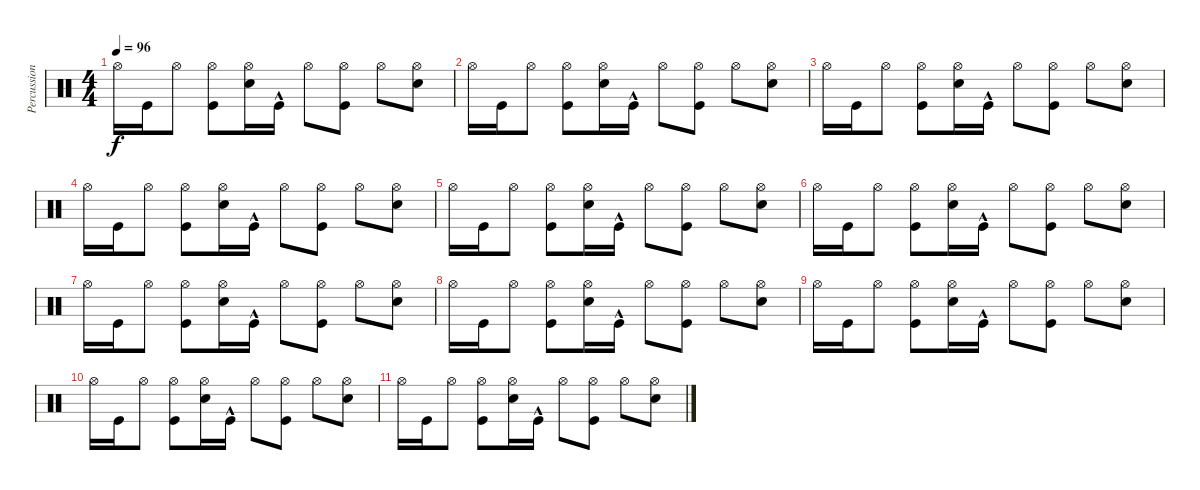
\track ("Percussion" "Percussion") {instrument percussion}
\staff {score}
\articulation defaults
\ts (4 4)
\tempo 96
\clef neutral
\ks c "Hi-Hat (open)".16{dy f} "Kick (hit)".16 "Hi-Hat (open)".8
("Kick (hit)" "Hi-Hat (open)").8 ("Electric Snare (hit)" "Hi-Hat (open)").16 "Kick (hit)"{hac}.16 "Hi-Hat (open)".8 ("Kick (hit)" "Hi-Hat (open)").8 "Hi-Hat (open)".8 ("Electric Snare (hit)" "Hi-Hat (open)").8 |
"Hi-Hat (open)".16 "Kick (hit)".16 "Hi-Hat (open)".8 ("Kick (hit)" "Hi-Hat (open)").8 ("Electric Snare (hit)" "Hi-Hat (open)").16 "Kick (hit)"{hac}.16 "Hi-Hat (open)".8 ("Kick (hit)" "Hi-Hat (open)").8 "Hi-Hat (open)".8 ("Electric Snare (hit)" "Hi-Hat (open)").8 |
"Hi-Hat (open)".16 "Kick (hit)".16 "Hi-Hat (open)".8 ("Kick (hit)" "Hi-Hat (open)").8 ("Electric Snare (hit)" "Hi-Hat (open)").16 "Kick (hit)"{hac}.16 "Hi-Hat (open)".8 ("Kick (hit)" "Hi-Hat (open)").8 "Hi-Hat (open)".8 ("Electric Snare (hit)" "Hi-Hat (open)").8 |
"Hi-Hat (open)".16 "Kick (hit)".16 "Hi-Hat (open)".8 ("Kick (hit)" "Hi-Hat (open)").8 ("Electric Snare (hit)" "Hi-Hat (open)").16 "Kick (hit)"{hac}.16 "Hi-Hat (open)".8 ("Kick (hit)" "Hi-Hat (open)").8 "Hi-Hat (open)".8 ("Electric Snare (hit)" "Hi-Hat (open)").8 |
"Hi-Hat (open)".16 "Kick (hit)".16 "Hi-Hat (open)".8 ("Kick (hit)" "Hi-Hat (open)").8 ("Electric Snare (hit)" "Hi-Hat (open)").16 "Kick (hit)"{hac}.16 "Hi-Hat (open)".8 ("Kick (hit)" "Hi-Hat (open)").8 "Hi-Hat (open)".8 ("Electric Snare (hit)" "Hi-Hat (open)").8 |
"Hi-Hat (open)".16 "Kick (hit)".16 "Hi-Hat (open)".8 ("Kick (hit)" "Hi-Hat (open)").8 ("Electric Snare (hit)" "Hi-Hat (open)").16 "Kick (hit)"{hac}.16 "Hi-Hat (open)".8 ("Kick (hit)" "Hi-Hat (open)").8 "Hi-Hat (open)".8 ("Electric Snare (hit)" "Hi-Hat (open)").8 |
"Hi-Hat (open)".16 "Kick (hit)".16 "Hi-Hat (open)".8 ("Kick (hit)" "Hi-Hat (open)").8 ("Electric Snare (hit)" "Hi-Hat (open)").16 "Kick (hit)"{hac}.16 "Hi-Hat (open)".8 ("Kick (hit)" "Hi-Hat (open)").8 "Hi-Hat (open)".8 ("Electric Snare (hit)" "Hi-Hat (open)").8 |
"Hi-Hat (open)".16 "Kick (hit)".16 "Hi-Hat (open)".8 ("Kick (hit)" "Hi-Hat (open)").8 ("Electric Snare (hit)" "Hi-Hat (open)").16 "Kick (hit)"{hac}.16 "Hi-Hat (open)".8 ("Kick (hit)" "Hi-Hat (open)").8 "Hi-Hat (open)".8 ("Electric Snare (hit)" "Hi-Hat (open)").8 |
"Hi-Hat (open)".16 "Kick (hit)".16 "Hi-Hat (open)".8 ("Kick (hit)" "Hi-Hat (open)").8 ("Electric Snare (hit)" "Hi-Hat (open)").16 "Kick (hit)"{hac}.16 "Hi-Hat (open)".8 ("Kick (hit)" "Hi-Hat (open)").8 "Hi-Hat (open)".8 ("Electric Snare (hit)" "Hi-Hat (open)").8 |
"Hi-Hat (open)".16 "Kick (hit)".16 "Hi-Hat (open)".8 ("Kick (hit)" "Hi-Hat (open)").8 ("Electric Snare (hit)" "Hi-Hat (open)").16 "Kick (hit)"{hac}.16 "Hi-Hat (open)".8 ("Kick (hit)" "Hi-Hat (open)").8 "Hi-Hat (open)".8 ("Electric Snare (hit)" "Hi-Hat (open)").8 |
"Hi-Hat (open)".16 "Kick (hit)".16 "Hi-Hat (open)".8 ("Kick (hit)" "Hi-Hat (open)").8 ("Electric Snare (hit)" "Hi-Hat (open)").16 "Kick (hit)"{hac}.16 "Hi-Hat (open)".8 ("Kick (hit)" "Hi-Hat (open)").8 "Hi-Hat (open)".8 ("Electric Snare (hit)" "Hi-Hat (open)").8
